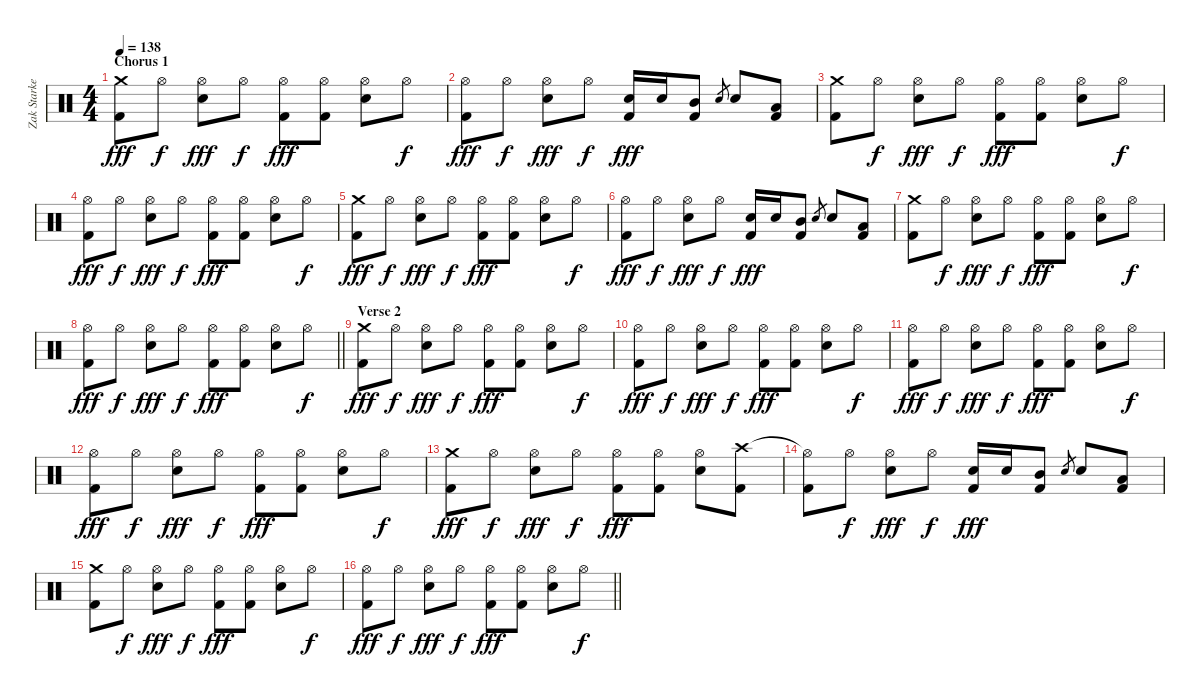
\track ("Zak Starkey" "Zak Starke") {instrument percussion}
\staff {score}
\articulation defaults
\ts (4 4)
\section ("" "Chorus 1")
\tempo 138
\clef neutral
\ks c
("Crash medium (hit)" "Kick (hit) 2").8{dy fff} "Hi-Hat (open)".8{dy f} ("Hi-Hat (open)" "Snare (hit) 2").8{dy fff} "Hi-Hat (open)".8{dy f} ("Hi-Hat (open)" "Kick (hit) 2").8{dy fff} ("Hi-Hat (open)" "Kick (hit) 2").8 ("Hi-Hat (open)" "Snare (hit) 2").8 "Hi-Hat (open)".8{dy f} |
("Hi-Hat (open)" "Kick (hit) 2").8{dy fff} "Hi-Hat (open)".8{dy f} ("Hi-Hat (open)" "Snare (hit) 2").8{dy fff} "Hi-Hat (open)".8{dy f} ("Snare (hit) 2" "Kick (hit) 2").16{dy fff} "Snare (hit) 2".16 ("Mid Tom (hit)" "Kick (hit) 2").8 "Snare (hit) 2".8{gr} "Snare (hit) 2".8 ("Low Tom (hit)" "Kick (hit) 2").8 |
("Crash medium (hit)" "Kick (hit) 2").8 "Hi-Hat (open)".8{dy f} ("Hi-Hat (open)" "Snare (hit) 2").8{dy fff} "Hi-Hat (open)".8{dy f} ("Hi-Hat (open)" "Kick (hit) 2").8{dy fff} ("Hi-Hat (open)" "Kick (hit) 2").8 ("Hi-Hat (open)" "Snare (hit) 2").8 "Hi-Hat (open)".8{dy f} |
("Hi-Hat (open)" "Kick (hit) 2").8{dy fff} "Hi-Hat (open)".8{dy f} ("Hi-Hat (open)" "Snare (hit) 2").8{dy fff} "Hi-Hat (open)".8{dy f} ("Hi-Hat (open)" "Kick (hit) 2").8{dy fff} ("Hi-Hat (open)" "Kick (hit) 2").8 ("Hi-Hat (open)" "Snare (hit) 2").8 "Hi-Hat (open)".8{dy f} |
("Crash medium (hit)" "Kick (hit) 2").8{dy fff} "Hi-Hat (open)".8{dy f} ("Hi-Hat (open)" "Snare (hit) 2").8{dy fff} "Hi-Hat (open)".8{dy f} ("Hi-Hat (open)" "Kick (hit) 2").8{dy fff} ("Hi-Hat (open)" "Kick (hit) 2").8 ("Hi-Hat (open)" "Snare (hit) 2").8 "Hi-Hat (open)".8{dy f} |
("Hi-Hat (open)" "Kick (hit) 2").8{dy fff} "Hi-Hat (open)".8{dy f} ("Hi-Hat (open)" "Snare (hit) 2").8{dy fff} "Hi-Hat (open)".8{dy f} ("Snare (hit) 2" "Kick (hit) 2").16{dy fff} "Snare (hit) 2".16 ("Mid Tom (hit)" "Kick (hit) 2").8 "Snare (hit) 2".8{gr} "Snare (hit) 2".8 ("Low Tom (hit)" "Kick (hit) 2").8 |
("Crash medium (hit)" "Kick (hit) 2").8 "Hi-Hat (open)".8{dy f} ("Hi-Hat (open)" "Snare (hit) 2").8{dy fff} "Hi-Hat (open)".8{dy f} ("Hi-Hat (open)" "Kick (hit) 2").8{dy fff} ("Hi-Hat (open)" "Kick (hit) 2").8 ("Hi-Hat (open)" "Snare (hit) 2").8 "Hi-Hat (open)".8{dy f} |
\barLineRight lightlight
("Hi-Hat (open)" "Kick (hit) 2").8{dy fff} "Hi-Hat (open)".8{dy f} ("Hi-Hat (open)" "Snare (hit) 2").8{dy fff} "Hi-Hat (open)".8{dy f} ("Hi-Hat (open)" "Kick (hit) 2").8{dy fff} ("Hi-Hat (open)" "Kick (hit) 2").8 ("Hi-Hat (open)" "Snare (hit) 2").8 "Hi-Hat (open)".8{dy f} |
\section ("" "Verse 2")
("Crash medium (hit)" "Kick (hit) 2").8{dy fff} "Hi-Hat (open)".8{dy f} ("Hi-Hat (open)" "Snare (hit) 2").8{dy fff} "Hi-Hat (open)".8{dy f} ("Hi-Hat (open)" "Kick (hit) 2").8{dy fff} ("Hi-Hat (open)" "Kick (hit) 2").8 ("Hi-Hat (open)" "Snare (hit) 2").8 "Hi-Hat (open)".8{dy f} |
("Hi-Hat (open)" "Kick (hit) 2").8{dy fff} "Hi-Hat (open)".8{dy f} ("Hi-Hat (open)" "Snare (hit) 2").8{dy fff} "Hi-Hat (open)".8{dy f} ("Hi-Hat (open)" "Kick (hit) 2").8{dy fff} ("Hi-Hat (open)" "Kick (hit) 2").8 ("Hi-Hat (open)" "Snare (hit) 2").8 "Hi-Hat (open)".8{dy f} |
("Hi-Hat (open)" "Kick (hit) 2").8{dy fff} "Hi-Hat (open)".8{dy f} ("Hi-Hat (open)" "Snare (hit) 2").8{dy fff} "Hi-Hat (open)".8{dy f} ("Hi-Hat (open)" "Kick (hit) 2").8{dy fff} ("Hi-Hat (open)" "Kick (hit) 2").8 ("Hi-Hat (open)" "Snare (hit) 2").8 "Hi-Hat (open)".8{dy f} |
("Hi-Hat (open)" "Kick (hit) 2").8{dy fff} "Hi-Hat (open)".8{dy f} ("Hi-Hat (open)" "Snare (hit) 2").8{dy fff} "Hi-Hat (open)".8{dy f} ("Hi-Hat (open)" "Kick (hit) 2").8{dy fff} ("Hi-Hat (open)" "Kick (hit) 2").8 ("Hi-Hat (open)" "Snare (hit) 2").8 "Hi-Hat (open)".8{dy f} |
("Crash medium (hit)" "Kick (hit) 2").8{dy fff} "Hi-Hat (open)".8{dy f} ("Hi-Hat (open)" "Snare (hit) 2").8{dy fff} "Hi-Hat (open)".8{dy f} ("Hi-Hat (open)" "Kick (hit) 2").8{dy fff} ("Hi-Hat (open)" "Kick (hit) 2").8 ("Hi-Hat (open)" "Snare (hit) 2").8 ("Crash high (hit)" "Kick (hit) 2").8 |
("Hi-Hat (open)"{t} "Kick (hit) 2").8 "Hi-Hat (open)".8{dy f} ("Hi-Hat (open)" "Snare (hit) 2").8{dy fff} "Hi-Hat (open)".8{dy f} ("Snare (hit) 2" "Kick (hit) 2").16{dy fff} "Snare (hit) 2".16 ("Mid Tom (hit)" "Kick (hit) 2").8 "Snare (hit) 2".8{gr} "Snare (hit) 2".8 ("Low Tom (hit)" "Kick (hit) 2").8 |
("Crash medium (hit)" "Kick (hit) 2").8 "Hi-Hat (open)".8{dy f} ("Hi-Hat (open)" "Snare (hit) 2").8{dy fff} "Hi-Hat (open)".8{dy f} ("Hi-Hat (open)" "Kick (hit) 2").8{dy fff} ("Hi-Hat (open)" "Kick (hit) 2").8 ("Hi-Hat (open)" "Snare (hit) 2").8 "Hi-Hat (open)".8{dy f} |
\barLineRight lightlight
("Hi-Hat (open)" "Kick (hit) 2").8{dy fff} "Hi-Hat (open)".8{dy f} ("Hi-Hat (open)" "Snare (hit) 2").8{dy fff} "Hi-Hat (open)".8{dy f} ("Hi-Hat (open)" "Kick (hit) 2").8{dy fff} ("Hi-Hat (open)" "Kick (hit) 2").8 ("Hi-Hat (open)" "Snare (hit) 2").8 "Hi-Hat (open)".8{dy f}
